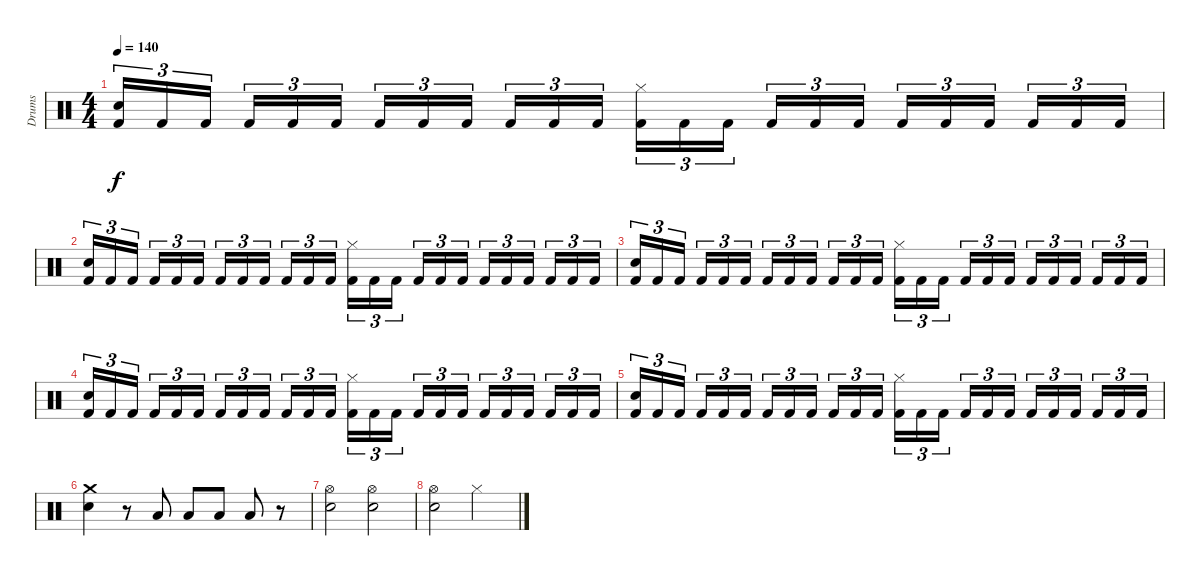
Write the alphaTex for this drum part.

\track ("Drums" "Drums") {instrument percussion}
\staff {score}
\articulation defaults
\ts (4 4)
\tempo 140
\clef neutral
\ks c
("Snare (hit) 2" "Kick (hit) 2").16{tu (3 2) dy f} "Kick (hit) 2".16{tu (3 2)} "Kick (hit) 2".16{tu (3 2)} "Kick (hit) 2".16{tu (3 2)} "Kick (hit) 2".16{tu (3 2)} "Kick (hit) 2".16{tu (3 2)} "Kick (hit) 2".16{tu (3 2)} "Kick (hit) 2".16{tu (3 2)} "Kick (hit) 2".16{tu (3 2)} "Kick (hit) 2".16{tu (3 2)} "Kick (hit) 2".16{tu (3 2)} "Kick (hit) 2".16{tu (3 2)} ("Hi-Hat (closed)" "Kick (hit) 2").16{tu (3 2)} "Kick (hit) 2".16{tu (3 2)} "Kick (hit) 2".16{tu (3 2)} "Kick (hit) 2".16{tu (3 2)} "Kick (hit) 2".16{tu (3 2)} "Kick (hit) 2".16{tu (3 2)} "Kick (hit) 2".16{tu (3 2)} "Kick (hit) 2".16{tu (3 2)} "Kick (hit) 2".16{tu (3 2)} "Kick (hit) 2".16{tu (3 2)} "Kick (hit) 2".16{tu (3 2)} "Kick (hit) 2".16{tu (3 2)} |
("Snare (hit) 2" "Kick (hit) 2").16{tu (3 2)} "Kick (hit) 2".16{tu (3 2)} "Kick (hit) 2".16{tu (3 2)} "Kick (hit) 2".16{tu (3 2)} "Kick (hit) 2".16{tu (3 2)} "Kick (hit) 2".16{tu (3 2)} "Kick (hit) 2".16{tu (3 2)} "Kick (hit) 2".16{tu (3 2)} "Kick (hit) 2".16{tu (3 2)} "Kick (hit) 2".16{tu (3 2)} "Kick (hit) 2".16{tu (3 2)} "Kick (hit) 2".16{tu (3 2)} ("Hi-Hat (closed)" "Kick (hit) 2").16{tu (3 2)} "Kick (hit) 2".16{tu (3 2)} "Kick (hit) 2".16{tu (3 2)} "Kick (hit) 2".16{tu (3 2)} "Kick (hit) 2".16{tu (3 2)} "Kick (hit) 2".16{tu (3 2)} "Kick (hit) 2".16{tu (3 2)} "Kick (hit) 2".16{tu (3 2)} "Kick (hit) 2".16{tu (3 2)} "Kick (hit) 2".16{tu (3 2)} "Kick (hit) 2".16{tu (3 2)} "Kick (hit) 2".16{tu (3 2)} |
("Snare (hit) 2" "Kick (hit) 2").16{tu (3 2)} "Kick (hit) 2".16{tu (3 2)} "Kick (hit) 2".16{tu (3 2)} "Kick (hit) 2".16{tu (3 2)} "Kick (hit) 2".16{tu (3 2)} "Kick (hit) 2".16{tu (3 2)} "Kick (hit) 2".16{tu (3 2)} "Kick (hit) 2".16{tu (3 2)} "Kick (hit) 2".16{tu (3 2)} "Kick (hit) 2".16{tu (3 2)} "Kick (hit) 2".16{tu (3 2)} "Kick (hit) 2".16{tu (3 2)} ("Hi-Hat (closed)" "Kick (hit) 2").16{tu (3 2)} "Kick (hit) 2".16{tu (3 2)} "Kick (hit) 2".16{tu (3 2)} "Kick (hit) 2".16{tu (3 2)} "Kick (hit) 2".16{tu (3 2)} "Kick (hit) 2".16{tu (3 2)} "Kick (hit) 2".16{tu (3 2)} "Kick (hit) 2".16{tu (3 2)} "Kick (hit) 2".16{tu (3 2)} "Kick (hit) 2".16{tu (3 2)} "Kick (hit) 2".16{tu (3 2)} "Kick (hit) 2".16{tu (3 2)} |
("Snare (hit) 2" "Kick (hit) 2").16{tu (3 2)} "Kick (hit) 2".16{tu (3 2)} "Kick (hit) 2".16{tu (3 2)} "Kick (hit) 2".16{tu (3 2)} "Kick (hit) 2".16{tu (3 2)} "Kick (hit) 2".16{tu (3 2)} "Kick (hit) 2".16{tu (3 2)} "Kick (hit) 2".16{tu (3 2)} "Kick (hit) 2".16{tu (3 2)} "Kick (hit) 2".16{tu (3 2)} "Kick (hit) 2".16{tu (3 2)} "Kick (hit) 2".16{tu (3 2)} ("Hi-Hat (closed)" "Kick (hit) 2").16{tu (3 2)} "Kick (hit) 2".16{tu (3 2)} "Kick (hit) 2".16{tu (3 2)} "Kick (hit) 2".16{tu (3 2)} "Kick (hit) 2".16{tu (3 2)} "Kick (hit) 2".16{tu (3 2)} "Kick (hit) 2".16{tu (3 2)} "Kick (hit) 2".16{tu (3 2)} "Kick (hit) 2".16{tu (3 2)} "Kick (hit) 2".16{tu (3 2)} "Kick (hit) 2".16{tu (3 2)} "Kick (hit) 2".16{tu (3 2)} |
("Snare (hit) 2" "Kick (hit) 2").16{tu (3 2)} "Kick (hit) 2".16{tu (3 2)} "Kick (hit) 2".16{tu (3 2)} "Kick (hit) 2".16{tu (3 2)} "Kick (hit) 2".16{tu (3 2)} "Kick (hit) 2".16{tu (3 2)} "Kick (hit) 2".16{tu (3 2)} "Kick (hit) 2".16{tu (3 2)} "Kick (hit) 2".16{tu (3 2)} "Kick (hit) 2".16{tu (3 2)} "Kick (hit) 2".16{tu (3 2)} "Kick (hit) 2".16{tu (3 2)} ("Hi-Hat (closed)" "Kick (hit) 2").16{tu (3 2)} "Kick (hit) 2".16{tu (3 2)} "Kick (hit) 2".16{tu (3 2)} "Kick (hit) 2".16{tu (3 2)} "Kick (hit) 2".16{tu (3 2)} "Kick (hit) 2".16{tu (3 2)} "Kick (hit) 2".16{tu (3 2)} "Kick (hit) 2".16{tu (3 2)} "Kick (hit) 2".16{tu (3 2)} "Kick (hit) 2".16{tu (3 2)} "Kick (hit) 2".16{tu (3 2)} "Kick (hit) 2".16{tu (3 2)} |
("Crash medium (hit)" "Snare (hit) 2").4 r.8 "Low Floor Tom (hit)".8 "Low Floor Tom (hit)".8 "Low Floor Tom (hit)".8 "Low Floor Tom (hit)".8 r.8 |
("Snare (hit) 2" "Hi-Hat (open)").2 ("Snare (hit) 2" "Hi-Hat (open)").2 |
("Snare (hit) 2" "Hi-Hat (open)").2 "Hi-Hat (closed)".2
